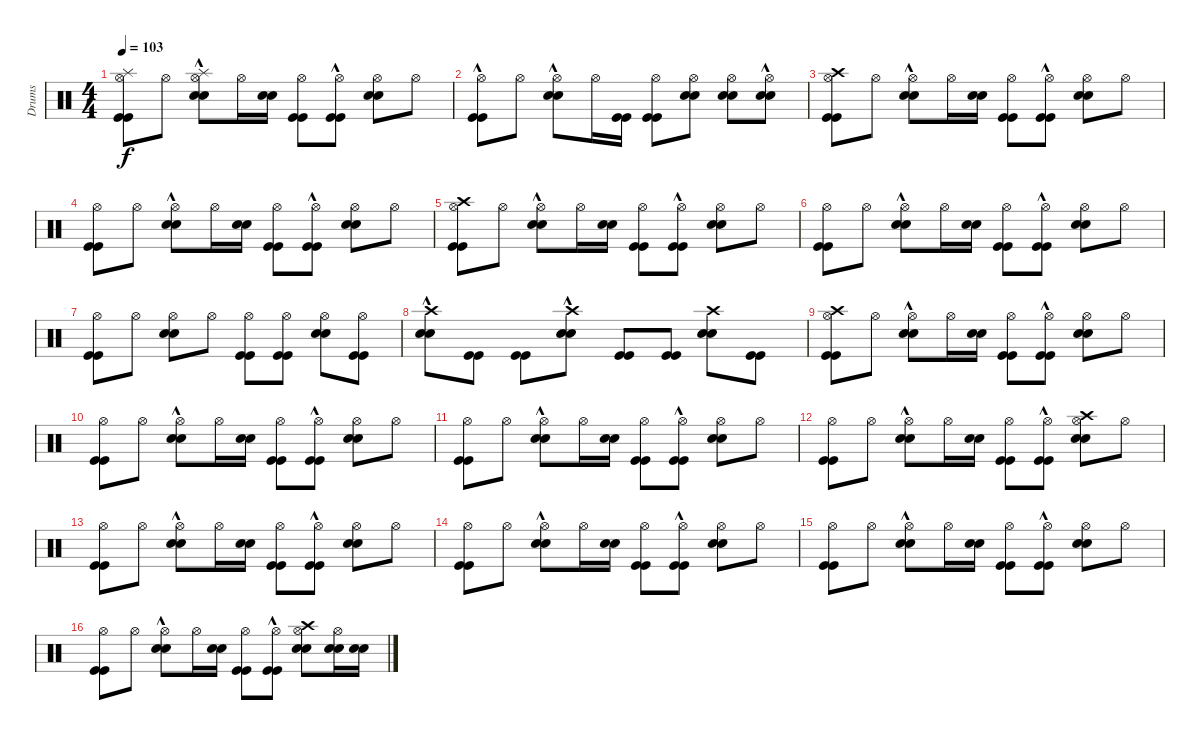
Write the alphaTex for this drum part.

\track ("Drums" "Drums") {instrument percussion}
\staff {score}
\articulation defaults
\ts (4 4)
\tempo 103
\clef neutral
\ks c
("Kick (hit)" "Kick (hit)" "Hi-Hat (open)" "Splash (hit)").8{dy f} "Hi-Hat (open)".8 ("Snare (hit) 2"{hac} "Snare (hit) 2"{hac} "Hi-Hat (open)" "Splash (hit)").8 "Hi-Hat (open)".16 ("Snare (hit) 2" "Snare (hit) 2").16 ("Kick (hit)" "Kick (hit)" "Hi-Hat (open)").8 ("Kick (hit)"{hac} "Kick (hit)"{hac} "Hi-Hat (open)").8 ("Snare (hit) 2" "Snare (hit) 2" "Hi-Hat (open)").8 "Hi-Hat (open)".8 |
("Kick (hit)"{hac} "Kick (hit)"{hac} "Hi-Hat (open)").8 "Hi-Hat (open)".8 ("Snare (hit) 2"{hac} "Snare (hit) 2"{hac} "Hi-Hat (open)").8 "Hi-Hat (open)".16 ("Kick (hit)" "Kick (hit)").16 ("Kick (hit)" "Kick (hit)" "Hi-Hat (open)").8 ("Snare (hit) 2" "Snare (hit) 2" "Hi-Hat (open)").8 ("Snare (hit) 2" "Snare (hit) 2" "Hi-Hat (open)").8 ("Snare (hit) 2"{hac} "Snare (hit) 2"{hac} "Hi-Hat (open)").8 |
("Kick (hit)" "Kick (hit)" "Hi-Hat (open)" "Crash high (hit)").8 "Hi-Hat (open)".8 ("Snare (hit) 2"{hac} "Snare (hit) 2"{hac} "Hi-Hat (open)").8 "Hi-Hat (open)".16 ("Snare (hit) 2" "Snare (hit) 2").16 ("Kick (hit)" "Kick (hit)" "Hi-Hat (open)").8 ("Kick (hit)"{hac} "Kick (hit)"{hac} "Hi-Hat (open)").8 ("Snare (hit) 2" "Snare (hit) 2" "Hi-Hat (open)").8 "Hi-Hat (open)".8 |
("Kick (hit)" "Kick (hit)" "Hi-Hat (open)").8 "Hi-Hat (open)".8 ("Snare (hit) 2"{hac} "Snare (hit) 2"{hac} "Hi-Hat (open)").8 "Hi-Hat (open)".16 ("Snare (hit) 2" "Snare (hit) 2").16 ("Kick (hit)" "Kick (hit)" "Hi-Hat (open)").8 ("Kick (hit)"{hac} "Kick (hit)"{hac} "Hi-Hat (open)").8 ("Snare (hit) 2" "Snare (hit) 2" "Hi-Hat (open)").8 "Hi-Hat (open)".8 |
("Kick (hit)" "Kick (hit)" "Hi-Hat (open)" "Crash high (hit)").8 "Hi-Hat (open)".8 ("Snare (hit) 2"{hac} "Snare (hit) 2"{hac} "Hi-Hat (open)").8 "Hi-Hat (open)".16 ("Snare (hit) 2" "Snare (hit) 2").16 ("Kick (hit)" "Kick (hit)" "Hi-Hat (open)").8 ("Kick (hit)"{hac} "Kick (hit)"{hac} "Hi-Hat (open)").8 ("Snare (hit) 2" "Snare (hit) 2" "Hi-Hat (open)").8 "Hi-Hat (open)".8 |
("Kick (hit)" "Kick (hit)" "Hi-Hat (open)").8 "Hi-Hat (open)".8 ("Snare (hit) 2"{hac} "Snare (hit) 2"{hac} "Hi-Hat (open)").8 "Hi-Hat (open)".16 ("Snare (hit) 2" "Snare (hit) 2").16 ("Kick (hit)" "Kick (hit)" "Hi-Hat (open)").8 ("Kick (hit)"{hac} "Kick (hit)"{hac} "Hi-Hat (open)").8 ("Snare (hit) 2" "Snare (hit) 2" "Hi-Hat (open)").8 "Hi-Hat (open)".8 |
("Kick (hit)" "Kick (hit)" "Hi-Hat (open)").8 "Hi-Hat (open)".8 ("Snare (hit) 2" "Snare (hit) 2" "Hi-Hat (open)").8 "Hi-Hat (open)".8 ("Kick (hit)" "Kick (hit)" "Hi-Hat (open)").8 ("Kick (hit)" "Kick (hit)" "Hi-Hat (open)").8 ("Snare (hit) 2" "Snare (hit) 2" "Hi-Hat (open)").8 ("Kick (hit)" "Kick (hit)" "Hi-Hat (open)").8 |
("Snare (hit) 2"{hac} "Snare (hit) 2"{hac} "Crash high (hit)"{hac}).8 ("Kick (hit)" "Kick (hit)").8 ("Kick (hit)" "Kick (hit)").8 ("Snare (hit) 2"{hac} "Snare (hit) 2"{hac} "Crash high (hit)"{hac}).8 ("Kick (hit)" "Kick (hit)").8 ("Kick (hit)" "Kick (hit)").8 ("Snare (hit) 2" "Snare (hit) 2" "Crash high (hit)").8 ("Kick (hit)" "Kick (hit)").8 |
("Kick (hit)" "Kick (hit)" "Hi-Hat (open)" "Crash high (hit)").8 "Hi-Hat (open)".8 ("Snare (hit) 2"{hac} "Snare (hit) 2"{hac} "Hi-Hat (open)").8 "Hi-Hat (open)".16 ("Snare (hit) 2" "Snare (hit) 2").16 ("Kick (hit)" "Kick (hit)" "Hi-Hat (open)").8 ("Kick (hit)"{hac} "Kick (hit)"{hac} "Hi-Hat (open)").8 ("Snare (hit) 2" "Snare (hit) 2" "Hi-Hat (open)").8 "Hi-Hat (open)".8 |
("Kick (hit)" "Kick (hit)" "Hi-Hat (open)").8 "Hi-Hat (open)".8 ("Snare (hit) 2"{hac} "Snare (hit) 2"{hac} "Hi-Hat (open)").8 "Hi-Hat (open)".16 ("Snare (hit) 2" "Snare (hit) 2").16 ("Kick (hit)" "Kick (hit)" "Hi-Hat (open)").8 ("Kick (hit)"{hac} "Kick (hit)"{hac} "Hi-Hat (open)").8 ("Snare (hit) 2" "Snare (hit) 2" "Hi-Hat (open)").8 "Hi-Hat (open)".8 |
("Kick (hit)" "Kick (hit)" "Hi-Hat (open)").8 "Hi-Hat (open)".8 ("Snare (hit) 2"{hac} "Snare (hit) 2"{hac} "Hi-Hat (open)").8 "Hi-Hat (open)".16 ("Snare (hit) 2" "Snare (hit) 2").16 ("Kick (hit)" "Kick (hit)" "Hi-Hat (open)").8 ("Kick (hit)"{hac} "Kick (hit)"{hac} "Hi-Hat (open)").8 ("Snare (hit) 2" "Snare (hit) 2" "Hi-Hat (open)").8 "Hi-Hat (open)".8 |
("Kick (hit)" "Kick (hit)" "Hi-Hat (open)").8 "Hi-Hat (open)".8 ("Snare (hit) 2"{hac} "Snare (hit) 2"{hac} "Hi-Hat (open)").8 "Hi-Hat (open)".16 ("Snare (hit) 2" "Snare (hit) 2").16 ("Kick (hit)" "Kick (hit)" "Hi-Hat (open)").8 ("Kick (hit)"{hac} "Kick (hit)"{hac} "Hi-Hat (open)").8 ("Snare (hit) 2" "Snare (hit) 2" "Hi-Hat (open)" "Crash high (hit)").8 "Hi-Hat (open)".8 |
("Kick (hit)" "Kick (hit)" "Hi-Hat (open)").8 "Hi-Hat (open)".8 ("Snare (hit) 2"{hac} "Snare (hit) 2"{hac} "Hi-Hat (open)").8 "Hi-Hat (open)".16 ("Snare (hit) 2" "Snare (hit) 2").16 ("Kick (hit)" "Kick (hit)" "Hi-Hat (open)").8 ("Kick (hit)"{hac} "Kick (hit)"{hac} "Hi-Hat (open)").8 ("Snare (hit) 2" "Snare (hit) 2" "Hi-Hat (open)").8 "Hi-Hat (open)".8 |
("Kick (hit)" "Kick (hit)" "Hi-Hat (open)").8 "Hi-Hat (open)".8 ("Snare (hit) 2"{hac} "Snare (hit) 2"{hac} "Hi-Hat (open)").8 "Hi-Hat (open)".16 ("Snare (hit) 2" "Snare (hit) 2").16 ("Kick (hit)" "Kick (hit)" "Hi-Hat (open)").8 ("Kick (hit)"{hac} "Kick (hit)"{hac} "Hi-Hat (open)").8 ("Snare (hit) 2" "Snare (hit) 2" "Hi-Hat (open)").8 "Hi-Hat (open)".8 |
("Kick (hit)" "Kick (hit)" "Hi-Hat (open)").8 "Hi-Hat (open)".8 ("Snare (hit) 2"{hac} "Snare (hit) 2"{hac} "Hi-Hat (open)").8 "Hi-Hat (open)".16 ("Snare (hit) 2" "Snare (hit) 2").16 ("Kick (hit)" "Kick (hit)" "Hi-Hat (open)").8 ("Kick (hit)"{hac} "Kick (hit)"{hac} "Hi-Hat (open)").8 ("Snare (hit) 2" "Snare (hit) 2" "Hi-Hat (open)").8 "Hi-Hat (open)".8 |
("Kick (hit)" "Kick (hit)" "Hi-Hat (open)").8 "Hi-Hat (open)".8 ("Snare (hit) 2"{hac} "Snare (hit) 2"{hac} "Hi-Hat (open)").8 "Hi-Hat (open)".16 ("Snare (hit) 2" "Snare (hit) 2").16 ("Kick (hit)" "Kick (hit)" "Hi-Hat (open)").8 ("Kick (hit)"{hac} "Kick (hit)"{hac} "Hi-Hat (open)").8 ("Snare (hit) 2" "Snare (hit) 2" "Hi-Hat (open)" "Crash high (hit)").8 ("Snare (hit) 2" "Snare (hit) 2" "Hi-Hat (open)").16 ("Snare (hit) 2" "Snare (hit) 2").16
